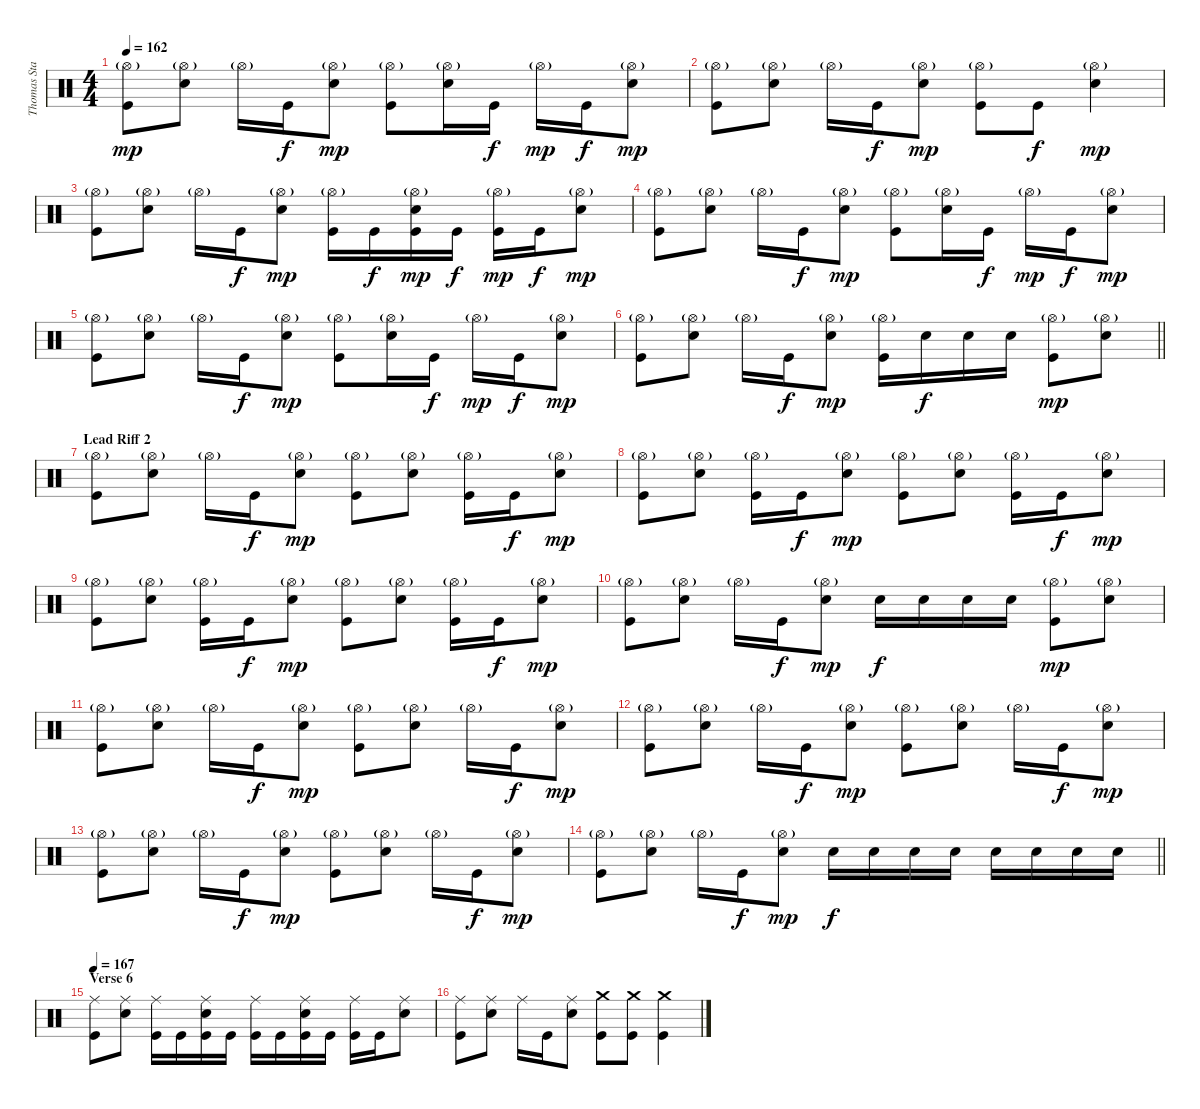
\track ("Thomas Stauch" "Thomas Sta") {instrument percussion}
\staff {score}
\articulation defaults
\ts (4 4)
\tempo 162
\clef neutral
\ks c
("Hi-Hat (open)"{g} "Kick (hit)").8{dy mp} ("Hi-Hat (open)"{g} "Electric Snare (hit)").8 "Hi-Hat (open)"{g}.16 "Kick (hit)".16{dy f} ("Hi-Hat (open)"{g} "Electric Snare (hit)").8{dy mp} ("Hi-Hat (open)"{g} "Kick (hit)").8 ("Hi-Hat (open)"{g} "Electric Snare (hit)").16 "Kick (hit)".16{dy f} "Hi-Hat (open)"{g}.16{dy mp} "Kick (hit)".16{dy f} ("Hi-Hat (open)"{g} "Electric Snare (hit)").8{dy mp} |
("Hi-Hat (open)"{g} "Kick (hit)").8 ("Hi-Hat (open)"{g} "Electric Snare (hit)").8 "Hi-Hat (open)"{g}.16 "Kick (hit)".16{dy f} ("Hi-Hat (open)"{g} "Electric Snare (hit)").8{dy mp} ("Hi-Hat (open)"{g} "Kick (hit)").8 "Kick (hit)".8{dy f} ("Hi-Hat (open)"{g} "Electric Snare (hit)").4{dy mp} |
("Hi-Hat (open)"{g} "Kick (hit)").8 ("Hi-Hat (open)"{g} "Electric Snare (hit)").8 "Hi-Hat (open)"{g}.16 "Kick (hit)".16{dy f} ("Hi-Hat (open)"{g} "Electric Snare (hit)").8{dy mp} ("Hi-Hat (open)"{g} "Kick (hit)").16 "Kick (hit)".16{dy f} ("Hi-Hat (open)"{g} "Electric Snare (hit)" "Kick (hit)").16{dy mp} "Kick (hit)".16{dy f} ("Hi-Hat (open)"{g} "Kick (hit)").16{dy mp} "Kick (hit)".16{dy f} ("Hi-Hat (open)"{g} "Electric Snare (hit)").8{dy mp} |
("Hi-Hat (open)"{g} "Kick (hit)").8 ("Hi-Hat (open)"{g} "Electric Snare (hit)").8 "Hi-Hat (open)"{g}.16 "Kick (hit)".16{dy f} ("Hi-Hat (open)"{g} "Electric Snare (hit)").8{dy mp} ("Hi-Hat (open)"{g} "Kick (hit)").8 ("Hi-Hat (open)"{g} "Electric Snare (hit)").16 "Kick (hit)".16{dy f} "Hi-Hat (open)"{g}.16{dy mp} "Kick (hit)".16{dy f} ("Hi-Hat (open)"{g} "Electric Snare (hit)").8{dy mp} |
("Hi-Hat (open)"{g} "Kick (hit)").8 ("Hi-Hat (open)"{g} "Electric Snare (hit)").8 "Hi-Hat (open)"{g}.16 "Kick (hit)".16{dy f} ("Hi-Hat (open)"{g} "Electric Snare (hit)").8{dy mp} ("Hi-Hat (open)"{g} "Kick (hit)").8 ("Hi-Hat (open)"{g} "Electric Snare (hit)").16 "Kick (hit)".16{dy f} "Hi-Hat (open)"{g}.16{dy mp} "Kick (hit)".16{dy f} ("Hi-Hat (open)"{g} "Electric Snare (hit)").8{dy mp} |
\barLineRight lightlight
("Hi-Hat (open)"{g} "Kick (hit)").8 ("Hi-Hat (open)"{g} "Electric Snare (hit)").8 "Hi-Hat (open)"{g}.16 "Kick (hit)".16{dy f} ("Hi-Hat (open)"{g} "Electric Snare (hit)").8{dy mp} ("Hi-Hat (open)"{g} "Kick (hit)").16 "Electric Snare (hit)".16{dy f} "Electric Snare (hit)".16 "Electric Snare (hit)".16 ("Hi-Hat (open)"{g} "Kick (hit)").8{dy mp} ("Hi-Hat (open)"{g} "Electric Snare (hit)").8 |
\section ("" "Lead Riff 2")
("Hi-Hat (open)"{g} "Kick (hit)").8 ("Hi-Hat (open)"{g} "Electric Snare (hit)").8 "Hi-Hat (open)"{g}.16 "Kick (hit)".16{dy f} ("Hi-Hat (open)"{g} "Electric Snare (hit)").8{dy mp} ("Hi-Hat (open)"{g} "Kick (hit)").8 ("Hi-Hat (open)"{g} "Electric Snare (hit)").8 ("Hi-Hat (open)"{g} "Kick (hit)").16 "Kick (hit)".16{dy f} ("Hi-Hat (open)"{g} "Electric Snare (hit)").8{dy mp} |
("Hi-Hat (open)"{g} "Kick (hit)").8 ("Hi-Hat (open)"{g} "Electric Snare (hit)").8 ("Hi-Hat (open)"{g} "Kick (hit)").16 "Kick (hit)".16{dy f} ("Hi-Hat (open)"{g} "Electric Snare (hit)").8{dy mp} ("Hi-Hat (open)"{g} "Kick (hit)").8 ("Hi-Hat (open)"{g} "Electric Snare (hit)").8 ("Hi-Hat (open)"{g} "Kick (hit)").16 "Kick (hit)".16{dy f} ("Hi-Hat (open)"{g} "Electric Snare (hit)").8{dy mp} |
("Hi-Hat (open)"{g} "Kick (hit)").8 ("Hi-Hat (open)"{g} "Electric Snare (hit)").8 ("Hi-Hat (open)"{g} "Kick (hit)").16 "Kick (hit)".16{dy f} ("Hi-Hat (open)"{g} "Electric Snare (hit)").8{dy mp} ("Hi-Hat (open)"{g} "Kick (hit)").8 ("Hi-Hat (open)"{g} "Electric Snare (hit)").8 ("Hi-Hat (open)"{g} "Kick (hit)").16 "Kick (hit)".16{dy f} ("Hi-Hat (open)"{g} "Electric Snare (hit)").8{dy mp} |
("Hi-Hat (open)"{g} "Kick (hit)").8 ("Hi-Hat (open)"{g} "Electric Snare (hit)").8 "Hi-Hat (open)"{g}.16 "Kick (hit)".16{dy f} ("Hi-Hat (open)"{g} "Electric Snare (hit)").8{dy mp} "Electric Snare (hit)".16{dy f} "Electric Snare (hit)".16 "Electric Snare (hit)".16 "Electric Snare (hit)".16 ("Hi-Hat (open)"{g} "Kick (hit)").8{dy mp} ("Hi-Hat (open)"{g} "Electric Snare (hit)").8 |
("Hi-Hat (open)"{g} "Kick (hit)").8 ("Hi-Hat (open)"{g} "Electric Snare (hit)").8 "Hi-Hat (open)"{g}.16 "Kick (hit)".16{dy f} ("Hi-Hat (open)"{g} "Electric Snare (hit)").8{dy mp} ("Hi-Hat (open)"{g} "Kick (hit)").8 ("Hi-Hat (open)"{g} "Electric Snare (hit)").8 "Hi-Hat (open)"{g}.16 "Kick (hit)".16{dy f} ("Hi-Hat (open)"{g} "Electric Snare (hit)").8{dy mp} |
("Hi-Hat (open)"{g} "Kick (hit)").8 ("Hi-Hat (open)"{g} "Electric Snare (hit)").8 "Hi-Hat (open)"{g}.16 "Kick (hit)".16{dy f} ("Hi-Hat (open)"{g} "Electric Snare (hit)").8{dy mp} ("Hi-Hat (open)"{g} "Kick (hit)").8 ("Hi-Hat (open)"{g} "Electric Snare (hit)").8 "Hi-Hat (open)"{g}.16 "Kick (hit)".16{dy f} ("Hi-Hat (open)"{g} "Electric Snare (hit)").8{dy mp} |
("Hi-Hat (open)"{g} "Kick (hit)").8 ("Hi-Hat (open)"{g} "Electric Snare (hit)").8 "Hi-Hat (open)"{g}.16 "Kick (hit)".16{dy f} ("Hi-Hat (open)"{g} "Electric Snare (hit)").8{dy mp} ("Hi-Hat (open)"{g} "Kick (hit)").8 ("Hi-Hat (open)"{g} "Electric Snare (hit)").8 "Hi-Hat (open)"{g}.16 "Kick (hit)".16{dy f} ("Hi-Hat (open)"{g} "Electric Snare (hit)").8{dy mp} |
\barLineRight lightlight
("Hi-Hat (open)"{g} "Kick (hit)").8 ("Hi-Hat (open)"{g} "Electric Snare (hit)").8 "Hi-Hat (open)"{g}.16 "Kick (hit)".16{dy f} ("Hi-Hat (open)"{g} "Electric Snare (hit)").8{dy mp} "Electric Snare (hit)".16{dy f} "Electric Snare (hit)".16 "Electric Snare (hit)".16 "Electric Snare (hit)".16 "Electric Snare (hit)".16 "Electric Snare (hit)".16 "Electric Snare (hit)".16 "Electric Snare (hit)".16 |
\section ("" "Verse 6")
\tempo 167
("Ride (middle)" "Kick (hit)").8 ("Ride (middle)" "Electric Snare (hit)").8 ("Ride (middle)" "Kick (hit)").16 "Kick (hit)".16 ("Ride (middle)" "Electric Snare (hit)" "Kick (hit)").16 "Kick (hit)".16 ("Ride (middle)" "Kick (hit)").16 "Kick (hit)".16 ("Ride (middle)" "Electric Snare (hit)" "Kick (hit)").16 "Kick (hit)".16 ("Ride (middle)" "Kick (hit)").16 "Kick (hit)".16 ("Ride (middle)" "Electric Snare (hit)").8 |
("Ride (middle)" "Kick (hit)").8 ("Ride (middle)" "Electric Snare (hit)").8 "Ride (middle)".16 "Kick (hit)".16 ("Ride (middle)" "Electric Snare (hit)").8 ("Crash medium (hit)" "Kick (hit)").8 ("Crash medium (hit)" "Kick (hit)").8 ("Crash medium (hit)" "Kick (hit)").4
